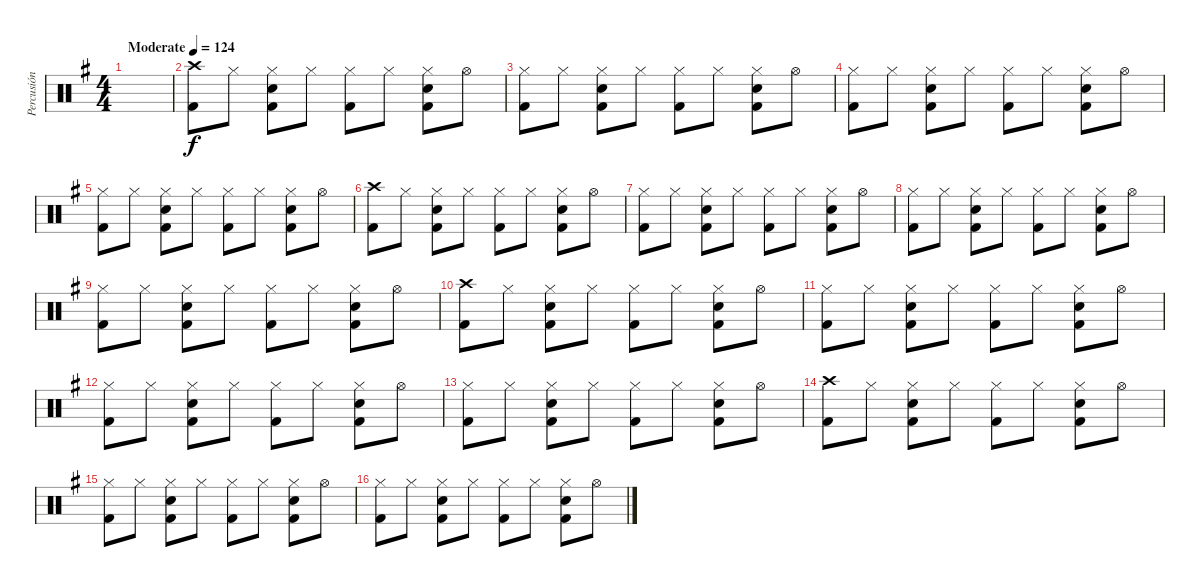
\track ("Percusión" "Percusión") {instrument percussion}
\staff {score}
\articulation defaults
\ts (4 4)
\tempo (124 "Moderate")
\clef neutral
\ks g
|
("Crash high (hit)" "Kick (hit) 2").8 "Hi-Hat (closed)".8 ("Hi-Hat (closed)" "Electric Snare (hit)" "Kick (hit) 2").8 "Hi-Hat (closed)".8 ("Hi-Hat (closed)" "Kick (hit) 2").8 "Hi-Hat (closed)".8 ("Hi-Hat (closed)" "Electric Snare (hit)" "Kick (hit) 2").8 "Hi-Hat (open)".8 |
("Hi-Hat (closed)" "Kick (hit) 2").8 "Hi-Hat (closed)".8 ("Hi-Hat (closed)" "Electric Snare (hit)" "Kick (hit) 2").8 "Hi-Hat (closed)".8 ("Hi-Hat (closed)" "Kick (hit) 2").8 "Hi-Hat (closed)".8 ("Hi-Hat (closed)" "Electric Snare (hit)" "Kick (hit) 2").8 "Hi-Hat (open)".8 |
("Hi-Hat (closed)" "Kick (hit) 2").8 "Hi-Hat (closed)".8 ("Hi-Hat (closed)" "Electric Snare (hit)" "Kick (hit) 2").8 "Hi-Hat (closed)".8 ("Hi-Hat (closed)" "Kick (hit) 2").8 "Hi-Hat (closed)".8 ("Hi-Hat (closed)" "Electric Snare (hit)" "Kick (hit) 2").8 "Hi-Hat (open)".8 |
("Hi-Hat (closed)" "Kick (hit) 2").8 "Hi-Hat (closed)".8 ("Hi-Hat (closed)" "Electric Snare (hit)" "Kick (hit) 2").8 "Hi-Hat (closed)".8 ("Hi-Hat (closed)" "Kick (hit) 2").8 "Hi-Hat (closed)".8 ("Hi-Hat (closed)" "Electric Snare (hit)" "Kick (hit) 2").8 "Hi-Hat (open)".8 |
("Crash high (hit)" "Kick (hit) 2").8 "Hi-Hat (closed)".8 ("Hi-Hat (closed)" "Electric Snare (hit)" "Kick (hit) 2").8 "Hi-Hat (closed)".8 ("Hi-Hat (closed)" "Kick (hit) 2").8 "Hi-Hat (closed)".8 ("Hi-Hat (closed)" "Electric Snare (hit)" "Kick (hit) 2").8 "Hi-Hat (open)".8 |
("Hi-Hat (closed)" "Kick (hit) 2").8 "Hi-Hat (closed)".8 ("Hi-Hat (closed)" "Electric Snare (hit)" "Kick (hit) 2").8 "Hi-Hat (closed)".8 ("Hi-Hat (closed)" "Kick (hit) 2").8 "Hi-Hat (closed)".8 ("Hi-Hat (closed)" "Electric Snare (hit)" "Kick (hit) 2").8 "Hi-Hat (open)".8 |
("Hi-Hat (closed)" "Kick (hit) 2").8 "Hi-Hat (closed)".8 ("Hi-Hat (closed)" "Electric Snare (hit)" "Kick (hit) 2").8 "Hi-Hat (closed)".8 ("Hi-Hat (closed)" "Kick (hit) 2").8 "Hi-Hat (closed)".8 ("Hi-Hat (closed)" "Electric Snare (hit)" "Kick (hit) 2").8 "Hi-Hat (open)".8 |
("Hi-Hat (closed)" "Kick (hit) 2").8 "Hi-Hat (closed)".8 ("Hi-Hat (closed)" "Electric Snare (hit)" "Kick (hit) 2").8 "Hi-Hat (closed)".8 ("Hi-Hat (closed)" "Kick (hit) 2").8 "Hi-Hat (closed)".8 ("Hi-Hat (closed)" "Electric Snare (hit)" "Kick (hit) 2").8 "Hi-Hat (open)".8 |
("Crash high (hit)" "Kick (hit) 2").8 "Hi-Hat (closed)".8 ("Hi-Hat (closed)" "Electric Snare (hit)" "Kick (hit) 2").8 "Hi-Hat (closed)".8 ("Hi-Hat (closed)" "Kick (hit) 2").8 "Hi-Hat (closed)".8 ("Hi-Hat (closed)" "Electric Snare (hit)" "Kick (hit) 2").8 "Hi-Hat (open)".8 |
("Hi-Hat (closed)" "Kick (hit) 2").8 "Hi-Hat (closed)".8 ("Hi-Hat (closed)" "Electric Snare (hit)" "Kick (hit) 2").8 "Hi-Hat (closed)".8 ("Hi-Hat (closed)" "Kick (hit) 2").8 "Hi-Hat (closed)".8 ("Hi-Hat (closed)" "Electric Snare (hit)" "Kick (hit) 2").8 "Hi-Hat (open)".8 |
("Hi-Hat (closed)" "Kick (hit) 2").8 "Hi-Hat (closed)".8 ("Hi-Hat (closed)" "Electric Snare (hit)" "Kick (hit) 2").8 "Hi-Hat (closed)".8 ("Hi-Hat (closed)" "Kick (hit) 2").8 "Hi-Hat (closed)".8 ("Hi-Hat (closed)" "Electric Snare (hit)" "Kick (hit) 2").8 "Hi-Hat (open)".8 |
("Hi-Hat (closed)" "Kick (hit) 2").8 "Hi-Hat (closed)".8 ("Hi-Hat (closed)" "Electric Snare (hit)" "Kick (hit) 2").8 "Hi-Hat (closed)".8 ("Hi-Hat (closed)" "Kick (hit) 2").8 "Hi-Hat (closed)".8 ("Hi-Hat (closed)" "Electric Snare (hit)" "Kick (hit) 2").8 "Hi-Hat (open)".8 |
("Crash high (hit)" "Kick (hit) 2").8 "Hi-Hat (closed)".8 ("Hi-Hat (closed)" "Electric Snare (hit)" "Kick (hit) 2").8 "Hi-Hat (closed)".8 ("Hi-Hat (closed)" "Kick (hit) 2").8 "Hi-Hat (closed)".8 ("Hi-Hat (closed)" "Electric Snare (hit)" "Kick (hit) 2").8 "Hi-Hat (open)".8 |
("Hi-Hat (closed)" "Kick (hit) 2").8 "Hi-Hat (closed)".8 ("Hi-Hat (closed)" "Electric Snare (hit)" "Kick (hit) 2").8 "Hi-Hat (closed)".8 ("Hi-Hat (closed)" "Kick (hit) 2").8 "Hi-Hat (closed)".8 ("Hi-Hat (closed)" "Electric Snare (hit)" "Kick (hit) 2").8 "Hi-Hat (open)".8 |
("Hi-Hat (closed)" "Kick (hit) 2").8 "Hi-Hat (closed)".8 ("Hi-Hat (closed)" "Electric Snare (hit)" "Kick (hit) 2").8 "Hi-Hat (closed)".8 ("Hi-Hat (closed)" "Kick (hit) 2").8 "Hi-Hat (closed)".8 ("Hi-Hat (closed)" "Electric Snare (hit)" "Kick (hit) 2").8 "Hi-Hat (open)".8
